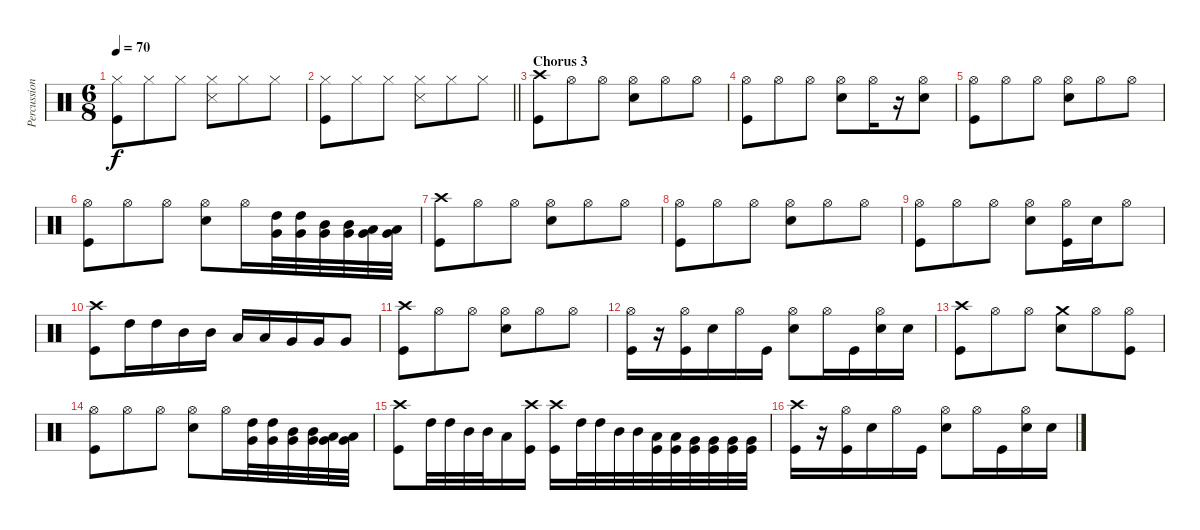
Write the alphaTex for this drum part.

\track ("Percussion" "Percussion") {instrument percussion}
\staff {score}
\articulation defaults
\ts (6 8)
\tempo 70
\clef neutral
\ks c
("Kick (hit)" "Hi-Hat (closed)").8{dy f} "Hi-Hat (closed)".8 "Hi-Hat (closed)".8 ("Snare (side stick) 3" "Hi-Hat (closed)").8 "Hi-Hat (closed)".8 "Hi-Hat (closed)".8 |
\barLineRight lightlight
("Kick (hit)" "Hi-Hat (closed)").8 "Hi-Hat (closed)".8 "Hi-Hat (closed)".8 ("Snare (side stick) 3" "Hi-Hat (closed)").8 "Hi-Hat (closed)".8 "Hi-Hat (closed)".8 |
\section ("" "Chorus 3")
("Kick (hit)" "Crash high (hit)").8{volume 0} "Hi-Hat (open)".8 "Hi-Hat (open)".8 ("Electric Snare (hit)" "Hi-Hat (open)").8 "Hi-Hat (open)".8 "Hi-Hat (open)".8 |
("Kick (hit)" "Hi-Hat (open)").8 "Hi-Hat (open)".8 "Hi-Hat (open)".8 ("Electric Snare (hit)" "Hi-Hat (open)").8 "Hi-Hat (open)".16 r.16 ("Electric Snare (hit)" "Hi-Hat (open)").8 |
("Kick (hit)" "Hi-Hat (open)").8 "Hi-Hat (open)".8 "Hi-Hat (open)".8 ("Electric Snare (hit)" "Hi-Hat (open)").8 "Hi-Hat (open)".8 "Hi-Hat (open)".8 |
("Kick (hit)" "Hi-Hat (open)").8 "Hi-Hat (open)".8 "Hi-Hat (open)".8 ("Electric Snare (hit)" "Hi-Hat (open)").8 "Hi-Hat (open)".16 ("High Tom (hit)" "Very Low Tom (hit)").32 ("High Tom (hit)" "Very Low Tom (hit)").32 ("Mid Tom (hit)" "Very Low Tom (hit)").32 ("Mid Tom (hit)" "Very Low Tom (hit)").32 ("Low Tom (hit)" "Very Low Tom (hit)").32 ("Low Tom (hit)" "Very Low Tom (hit)").32 |
("Kick (hit)" "Crash high (hit)").8 "Hi-Hat (open)".8 "Hi-Hat (open)".8 ("Electric Snare (hit)" "Hi-Hat (open)").8 "Hi-Hat (open)".8 "Hi-Hat (open)".8 |
("Kick (hit)" "Hi-Hat (open)").8 "Hi-Hat (open)".8 "Hi-Hat (open)".8 ("Electric Snare (hit)" "Hi-Hat (open)").8 "Hi-Hat (open)".8 "Hi-Hat (open)".8 |
("Kick (hit)" "Hi-Hat (open)").8 "Hi-Hat (open)".8 "Hi-Hat (open)".8 ("Electric Snare (hit)" "Hi-Hat (open)").8 ("Kick (hit)" "Hi-Hat (open)").16 "Electric Snare (hit)".16 "Hi-Hat (open)".8 |
("Kick (hit)" "Crash high (hit)").8 "High Tom (hit)".16{volume 5} "High Tom (hit)".16 "Mid Tom (hit)".16 "Mid Tom (hit)".16{volume 10} "Low Tom (hit)".16 "Low Tom (hit)".16{volume 13} "Very Low Tom (hit)".16 "Very Low Tom (hit)".16 "Very Low Tom (hit)".8 |
("Kick (hit)" "Crash high (hit)").8{volume 16} "Hi-Hat (open)".8 "Hi-Hat (open)".8 ("Electric Snare (hit)" "Hi-Hat (open)").8 "Hi-Hat (open)".8 "Hi-Hat (open)".8 |
("Kick (hit)" "Hi-Hat (open)").16 r.16 ("Kick (hit)" "Hi-Hat (open)").16 "Electric Snare (hit)".16 "Hi-Hat (open)".16 "Kick (hit)".16 ("Electric Snare (hit)" "Hi-Hat (open)").8 "Hi-Hat (open)".16 "Kick (hit)".16 ("Electric Snare (hit)" "Hi-Hat (open)").16 "Electric Snare (hit)".16 |
("Kick (hit)" "Crash high (hit)").8 "Hi-Hat (open)".8 "Hi-Hat (open)".8 ("Electric Snare (hit)" "Crash medium (hit)").8 "Hi-Hat (open)".8 ("Kick (hit)" "Hi-Hat (open)").8 |
("Kick (hit)" "Hi-Hat (open)").8 "Hi-Hat (open)".8 "Hi-Hat (open)".8 ("Electric Snare (hit)" "Hi-Hat (open)").8 "Hi-Hat (open)".16 ("High Tom (hit)" "Very Low Tom (hit)").32 ("High Tom (hit)" "Very Low Tom (hit)").32 ("Mid Tom (hit)" "Very Low Tom (hit)").32 ("Mid Tom (hit)" "Very Low Tom (hit)").32 ("Low Tom (hit)" "Very Low Tom (hit)").32 ("Low Tom (hit)" "Very Low Tom (hit)").32 |
("Kick (hit)" "Crash high (hit)").8 "High Tom (hit)".32 "High Tom (hit)".32 "Mid Tom (hit)".32 "Mid Tom (hit)".32 "Low Tom (hit)".16 ("Kick (hit)" "Crash high (hit)").16 ("Kick (hit)" "Crash high (hit)").16 "High Tom (hit)".32 "High Tom (hit)".32 "Mid Tom (hit)".32 "Mid Tom (hit)".32 ("Kick (hit)" "Low Tom (hit)").32 ("Kick (hit)" "Low Tom (hit)").32 ("Kick (hit)" "Very Low Tom (hit)").32 ("Kick (hit)" "Very Low Tom (hit)").32 ("Kick (hit)" "Very Low Tom (hit)").32 ("Kick (hit)" "Very Low Tom (hit)").32 |
("Kick (hit)" "Crash high (hit)").16 r.16 ("Kick (hit)" "Hi-Hat (open)").16 "Electric Snare (hit)".16 "Hi-Hat (open)".16 "Kick (hit)".16 ("Electric Snare (hit)" "Hi-Hat (open)").8 "Hi-Hat (open)".16 "Kick (hit)".16 ("Electric Snare (hit)" "Hi-Hat (open)").16 "Electric Snare (hit)".16
